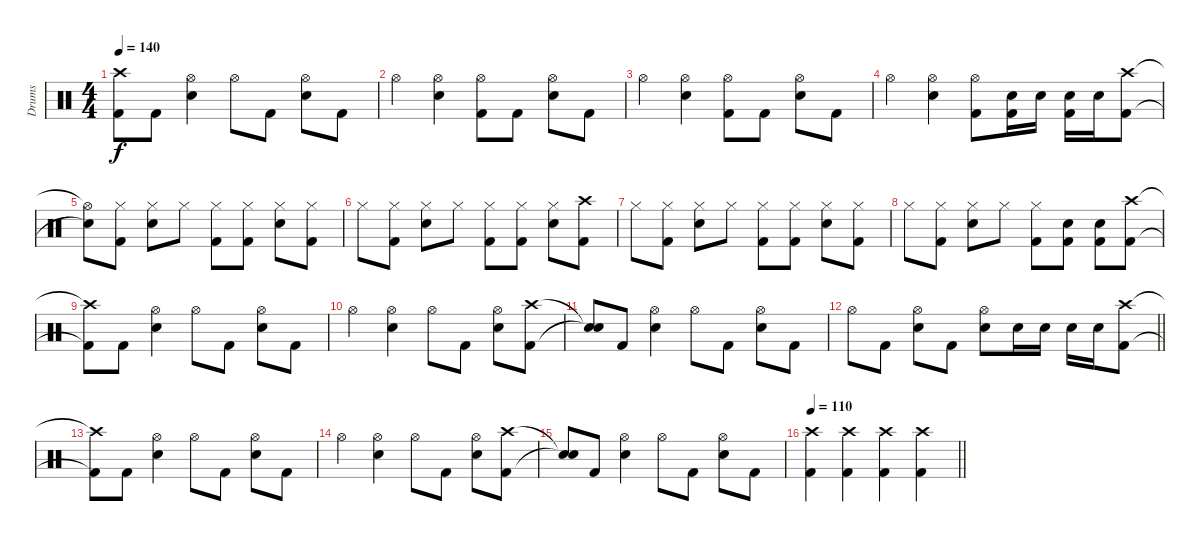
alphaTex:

\track ("Drums" "Drums") {instrument percussion}
\staff {score}
\articulation defaults
\ts (4 4)
\tempo 140
\clef neutral
\ks c
("Crash high (hit)"{t} "Kick (hit) 2"{t}).8{dy f} "Kick (hit) 2".8 ("Hi-Hat (open)" "Electric Snare (hit)").4 "Hi-Hat (open)".8 "Kick (hit) 2".8 ("Hi-Hat (open)" "Electric Snare (hit)").8 "Kick (hit) 2".8 |
"Hi-Hat (open)".4 ("Hi-Hat (open)" "Electric Snare (hit)").4 ("Hi-Hat (open)" "Kick (hit) 2").8 "Kick (hit) 2".8 ("Hi-Hat (open)" "Electric Snare (hit)").8 "Kick (hit) 2".8 |
"Hi-Hat (open)".4 ("Hi-Hat (open)" "Electric Snare (hit)").4 ("Hi-Hat (open)" "Kick (hit) 2").8 "Kick (hit) 2".8 ("Hi-Hat (open)" "Electric Snare (hit)").8 "Kick (hit) 2".8 |
"Hi-Hat (open)".4 ("Hi-Hat (open)" "Electric Snare (hit)").4 ("Hi-Hat (open)" "Kick (hit) 2").8 ("Electric Snare (hit)" "Kick (hit) 2").16 "Electric Snare (hit)".16 ("Electric Snare (hit)" "Kick (hit) 2").16 "Electric Snare (hit)".16 ("Crash high (hit)" "Kick (hit) 2").8 |
("Hi-Hat (open)"{t} "Snare (hit)"{t}).8 ("Hi-Hat (closed)" "Kick (hit) 2").8 ("Hi-Hat (closed)" "Electric Snare (hit)").8 "Hi-Hat (closed)".8 ("Hi-Hat (closed)" "Kick (hit) 2").8 ("Hi-Hat (closed)" "Kick (hit) 2").8 ("Hi-Hat (closed)" "Electric Snare (hit)").8 ("Hi-Hat (closed)" "Kick (hit) 2").8 |
"Hi-Hat (closed)".8 ("Hi-Hat (closed)" "Kick (hit) 2").8 ("Hi-Hat (closed)" "Electric Snare (hit)").8 "Hi-Hat (closed)".8 ("Hi-Hat (closed)" "Kick (hit) 2").8 ("Hi-Hat (closed)" "Kick (hit) 2").8 ("Hi-Hat (closed)" "Electric Snare (hit)").8 ("Crash high (hit)" "Kick (hit) 2").8 |
"Hi-Hat (closed)".8 ("Hi-Hat (closed)" "Kick (hit) 2").8 ("Hi-Hat (closed)" "Electric Snare (hit)").8 "Hi-Hat (closed)".8 ("Hi-Hat (closed)" "Kick (hit) 2").8 ("Hi-Hat (closed)" "Kick (hit) 2").8 ("Hi-Hat (closed)" "Electric Snare (hit)").8 ("Hi-Hat (closed)" "Kick (hit) 2").8 |
"Hi-Hat (closed)".8 ("Hi-Hat (closed)" "Kick (hit) 2").8 ("Hi-Hat (closed)" "Electric Snare (hit)").8 "Hi-Hat (closed)".8 ("Hi-Hat (closed)" "Kick (hit) 2").8 ("Electric Snare (hit)" "Kick (hit) 2").8 ("Electric Snare (hit)" "Kick (hit) 2").8 ("Crash high (hit)" "Kick (hit) 2").8 |
("Crash high (hit)"{t} "Kick (hit) 2"{t}).8 "Kick (hit) 2".8 ("Hi-Hat (open)" "Electric Snare (hit)").4 "Hi-Hat (open)".8 "Kick (hit) 2".8 ("Hi-Hat (open)" "Electric Snare (hit)").8 "Kick (hit) 2".8 |
"Hi-Hat (open)".4 ("Hi-Hat (open)" "Electric Snare (hit)").4 "Hi-Hat (open)".8 "Kick (hit) 2".8 ("Hi-Hat (open)" "Electric Snare (hit)").8 ("Crash high (hit)" "Kick (hit) 2").8 |
("Snare (hit)"{t} "Snare (hit)"{t}).8 "Kick (hit) 2".8 ("Hi-Hat (open)" "Electric Snare (hit)").4 "Hi-Hat (open)".8 "Kick (hit) 2".8 ("Hi-Hat (open)" "Electric Snare (hit)").8 "Kick (hit) 2".8 |
\barLineRight lightlight "Hi-Hat (open)".8 "Kick (hit) 2".8
("Hi-Hat (open)" "Electric Snare (hit)").8 "Kick (hit) 2".8 ("Hi-Hat (open)" "Electric Snare (hit)").8 "Electric Snare (hit)".16 "Electric Snare (hit)".16 "Electric Snare (hit)".16 "Electric Snare (hit)".16 ("Crash high (hit)" "Kick (hit) 2").8 |
("Crash high (hit)"{t} "Kick (hit) 2"{t}).8 "Kick (hit) 2".8 ("Hi-Hat (open)" "Electric Snare (hit)").4 "Hi-Hat (open)".8 "Kick (hit) 2".8 ("Hi-Hat (open)" "Electric Snare (hit)").8 "Kick (hit) 2".8 |
"Hi-Hat (open)".4 ("Hi-Hat (open)" "Electric Snare (hit)").4 "Hi-Hat (open)".8 "Kick (hit) 2".8 ("Hi-Hat (open)" "Electric Snare (hit)").8 ("Crash high (hit)" "Kick (hit) 2").8 |
("Snare (hit)"{t} "Snare (hit)"{t}).8 "Kick (hit) 2".8 ("Hi-Hat (open)" "Electric Snare (hit)").4 "Hi-Hat (open)".8 "Kick (hit) 2".8 ("Hi-Hat (open)" "Electric Snare (hit)").8 "Kick (hit) 2".8 |
\tempo 110
\barLineRight lightlight
("Crash high (hit)" "Kick (hit) 2").4 ("Crash high (hit)" "Kick (hit) 2").4 ("Crash high (hit)" "Kick (hit) 2").4 ("Crash high (hit)" "Kick (hit) 2").4
